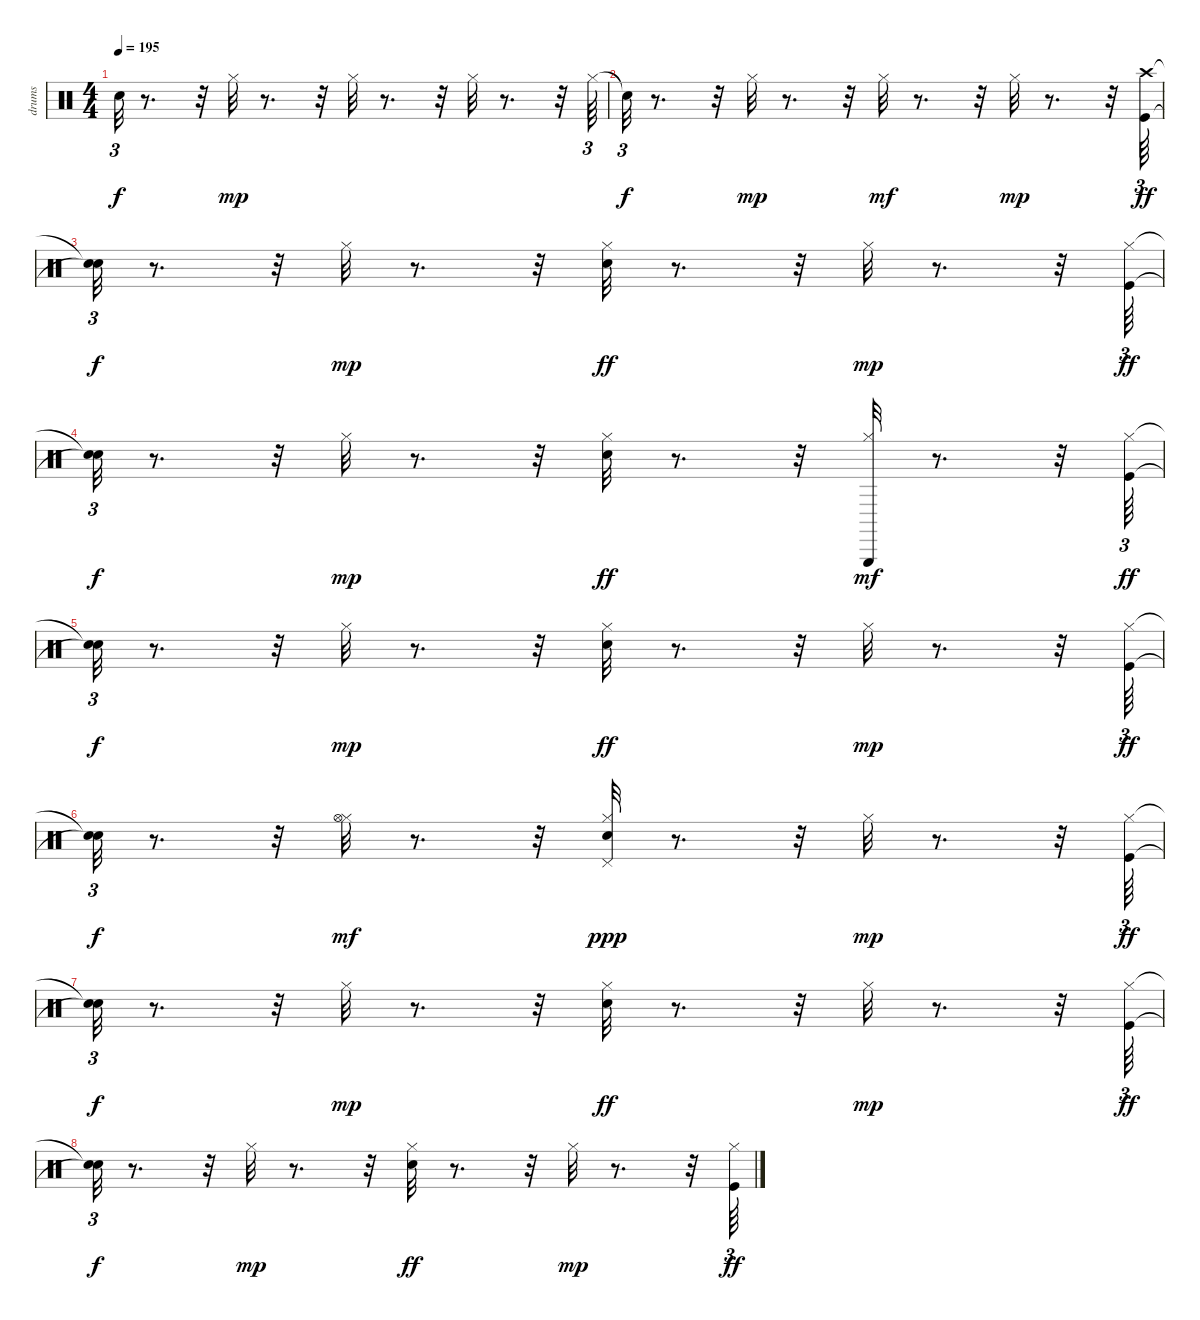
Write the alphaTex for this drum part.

\track ("drums" "drums") {instrument percussion}
\staff {score}
\articulation defaults
\ts (4 4)
\tempo 195
\clef neutral
\ks c "Snare (hit)"{t}.32{tu (3 2) dy f}
r.8{d} r.32 "Hi-Hat (closed)".32{dy mp} r.8{d} r.32 "Hi-Hat (closed)".32 r.8{d} r.32 "Hi-Hat (closed)".32 r.8{d} r.32 "Hi-Hat (closed)".64{tu (3 2)} |
"Snare (hit)"{t}.32{tu (3 2) dy f} r.8{d} r.32 "Hi-Hat (closed)".32{dy mp} r.8{d} r.32 "Hi-Hat (closed)".32{dy mf} r.8{d} r.32 "Hi-Hat (closed)".32{dy mp} r.8{d} r.32 ("Crash high (hit)" "Kick (hit)").64{tu (3 2) dy ff} |
("Snare (hit)"{t} "Snare (hit)"{t}).32{tu (3 2) dy f} r.8{d} r.32 "Hi-Hat (closed)".32{dy mp} r.8{d} r.32 ("Snare (hit) 2" "Hi-Hat (closed)").32{dy ff} r.8{d} r.32 "Hi-Hat (closed)".32{dy mp} r.8{d} r.32 ("Hi-Hat (closed)" "Kick (hit)").64{tu (3 2) dy ff} |
("Snare (hit)"{t} "Snare (hit)"{t}).32{tu (3 2) dy f} r.8{d} r.32 "Hi-Hat (closed)".32{dy mp} r.8{d} r.32 ("Hi-Hat (closed)" "Snare (hit) 2").32{dy ff} r.8{d} r.32 ("Hi-Hat (closed)" "Triangle (hit)").32{dy mf} r.8{d} r.32 ("Kick (hit)" "Hi-Hat (closed)").64{tu (3 2) dy ff} |
("Snare (hit)"{t} "Snare (hit)"{t}).32{tu (3 2) dy f} r.8{d} r.32 "Hi-Hat (closed)".32{dy mp} r.8{d} r.32 ("Snare (hit) 2" "Hi-Hat (closed)").32{dy ff} r.8{d} r.32 "Hi-Hat (closed)".32{dy mp} r.8{d} r.32 ("Hi-Hat (closed)" "Kick (hit)").64{tu (3 2) dy ff} |
("Snare (hit)"{t} "Snare (hit)"{t}).32{tu (3 2) dy f} r.8{d} r.32 ("Hi-Hat (closed)" "Hi-Hat (open)").32{dy mf} r.8{d} r.32 ("Snare (hit) 2" "Hi-Hat (closed)" "Pedal Hi-Hat (hit)").32{dy ppp} r.8{d} r.32 "Hi-Hat (closed)".32{dy mp} r.8{d} r.32 ("Kick (hit)" "Hi-Hat (closed)").64{tu (3 2) dy ff} |
("Snare (hit)"{t} "Snare (hit)"{t}).32{tu (3 2) dy f} r.8{d} r.32 "Hi-Hat (closed)".32{dy mp} r.8{d} r.32 ("Snare (hit) 2" "Hi-Hat (closed)").32{dy ff} r.8{d} r.32 "Hi-Hat (closed)".32{dy mp} r.8{d} r.32 ("Kick (hit)" "Hi-Hat (closed)").64{tu (3 2) dy ff} |
("Snare (hit)"{t} "Snare (hit)"{t}).32{tu (3 2) dy f} r.8{d} r.32 "Hi-Hat (closed)".32{dy mp} r.8{d} r.32 ("Snare (hit) 2" "Hi-Hat (closed)").32{dy ff} r.8{d} r.32 "Hi-Hat (closed)".32{dy mp} r.8{d} r.32 ("Kick (hit)" "Hi-Hat (closed)").64{tu (3 2) dy ff}
